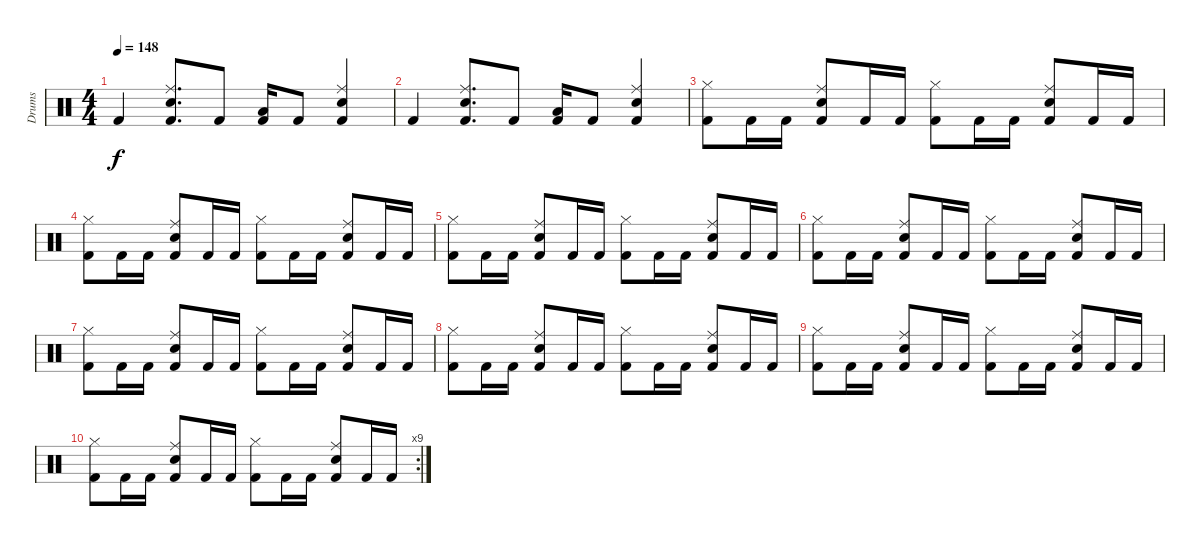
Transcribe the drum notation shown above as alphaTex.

\track ("Drums" "Drums") {instrument percussion}
\staff {score}
\articulation defaults
\ts (4 4)
\tempo 148
\clef neutral
\ks c "Kick (hit) 2".4{dy f}
("Ride (middle)" "Snare (hit) 2" "Kick (hit) 2").8{d} "Kick (hit) 2".8 ("Low Floor Tom (hit)" "Kick (hit) 2").16 "Kick (hit) 2".8 ("Ride (middle)" "Snare (hit) 2" "Kick (hit) 2").4 |
"Kick (hit) 2".4 ("Ride (middle)" "Snare (hit) 2" "Kick (hit) 2").8{d} "Kick (hit) 2".8 ("Low Floor Tom (hit)" "Kick (hit) 2").16 "Kick (hit) 2".8 ("Ride (middle)" "Snare (hit) 2" "Kick (hit) 2").4 |
("Hi-Hat (closed)" "Kick (hit) 2").8 "Kick (hit) 2".16 "Kick (hit) 2".16 ("Ride (middle)" "Snare (hit) 2" "Kick (hit) 2").8 "Kick (hit) 2".16 "Kick (hit) 2".16 ("Hi-Hat (closed)" "Kick (hit) 2").8 "Kick (hit) 2".16 "Kick (hit) 2".16 ("Ride (middle)" "Snare (hit) 2" "Kick (hit) 2").8 "Kick (hit) 2".16 "Kick (hit) 2".16 |
("Hi-Hat (closed)" "Kick (hit) 2").8 "Kick (hit) 2".16 "Kick (hit) 2".16 ("Ride (middle)" "Snare (hit) 2" "Kick (hit) 2").8 "Kick (hit) 2".16 "Kick (hit) 2".16 ("Hi-Hat (closed)" "Kick (hit) 2").8 "Kick (hit) 2".16 "Kick (hit) 2".16 ("Ride (middle)" "Snare (hit) 2" "Kick (hit) 2").8 "Kick (hit) 2".16 "Kick (hit) 2".16 |
("Hi-Hat (closed)" "Kick (hit) 2").8 "Kick (hit) 2".16 "Kick (hit) 2".16 ("Ride (middle)" "Snare (hit) 2" "Kick (hit) 2").8 "Kick (hit) 2".16 "Kick (hit) 2".16 ("Hi-Hat (closed)" "Kick (hit) 2").8 "Kick (hit) 2".16 "Kick (hit) 2".16 ("Ride (middle)" "Snare (hit) 2" "Kick (hit) 2").8 "Kick (hit) 2".16 "Kick (hit) 2".16 |
("Hi-Hat (closed)" "Kick (hit) 2").8 "Kick (hit) 2".16 "Kick (hit) 2".16 ("Ride (middle)" "Snare (hit) 2" "Kick (hit) 2").8 "Kick (hit) 2".16 "Kick (hit) 2".16 ("Hi-Hat (closed)" "Kick (hit) 2").8 "Kick (hit) 2".16 "Kick (hit) 2".16 ("Ride (middle)" "Snare (hit) 2" "Kick (hit) 2").8 "Kick (hit) 2".16 "Kick (hit) 2".16 |
("Hi-Hat (closed)" "Kick (hit) 2").8 "Kick (hit) 2".16 "Kick (hit) 2".16 ("Ride (middle)" "Snare (hit) 2" "Kick (hit) 2").8 "Kick (hit) 2".16 "Kick (hit) 2".16 ("Hi-Hat (closed)" "Kick (hit) 2").8 "Kick (hit) 2".16 "Kick (hit) 2".16 ("Ride (middle)" "Snare (hit) 2" "Kick (hit) 2").8 "Kick (hit) 2".16 "Kick (hit) 2".16 |
("Hi-Hat (closed)" "Kick (hit) 2").8 "Kick (hit) 2".16 "Kick (hit) 2".16 ("Ride (middle)" "Snare (hit) 2" "Kick (hit) 2").8 "Kick (hit) 2".16 "Kick (hit) 2".16 ("Hi-Hat (closed)" "Kick (hit) 2").8 "Kick (hit) 2".16 "Kick (hit) 2".16 ("Ride (middle)" "Snare (hit) 2" "Kick (hit) 2").8 "Kick (hit) 2".16 "Kick (hit) 2".16 |
("Hi-Hat (closed)" "Kick (hit) 2").8 "Kick (hit) 2".16 "Kick (hit) 2".16 ("Ride (middle)" "Snare (hit) 2" "Kick (hit) 2").8 "Kick (hit) 2".16 "Kick (hit) 2".16 ("Hi-Hat (closed)" "Kick (hit) 2").8 "Kick (hit) 2".16 "Kick (hit) 2".16 ("Ride (middle)" "Snare (hit) 2" "Kick (hit) 2").8 "Kick (hit) 2".16 "Kick (hit) 2".16 |
\rc 9
("Hi-Hat (closed)" "Kick (hit) 2").8 "Kick (hit) 2".16 "Kick (hit) 2".16 ("Ride (middle)" "Snare (hit) 2" "Kick (hit) 2").8 "Kick (hit) 2".16 "Kick (hit) 2".16 ("Hi-Hat (closed)" "Kick (hit) 2").8 "Kick (hit) 2".16 "Kick (hit) 2".16 ("Ride (middle)" "Snare (hit) 2" "Kick (hit) 2").8 "Kick (hit) 2".16 "Kick (hit) 2".16
